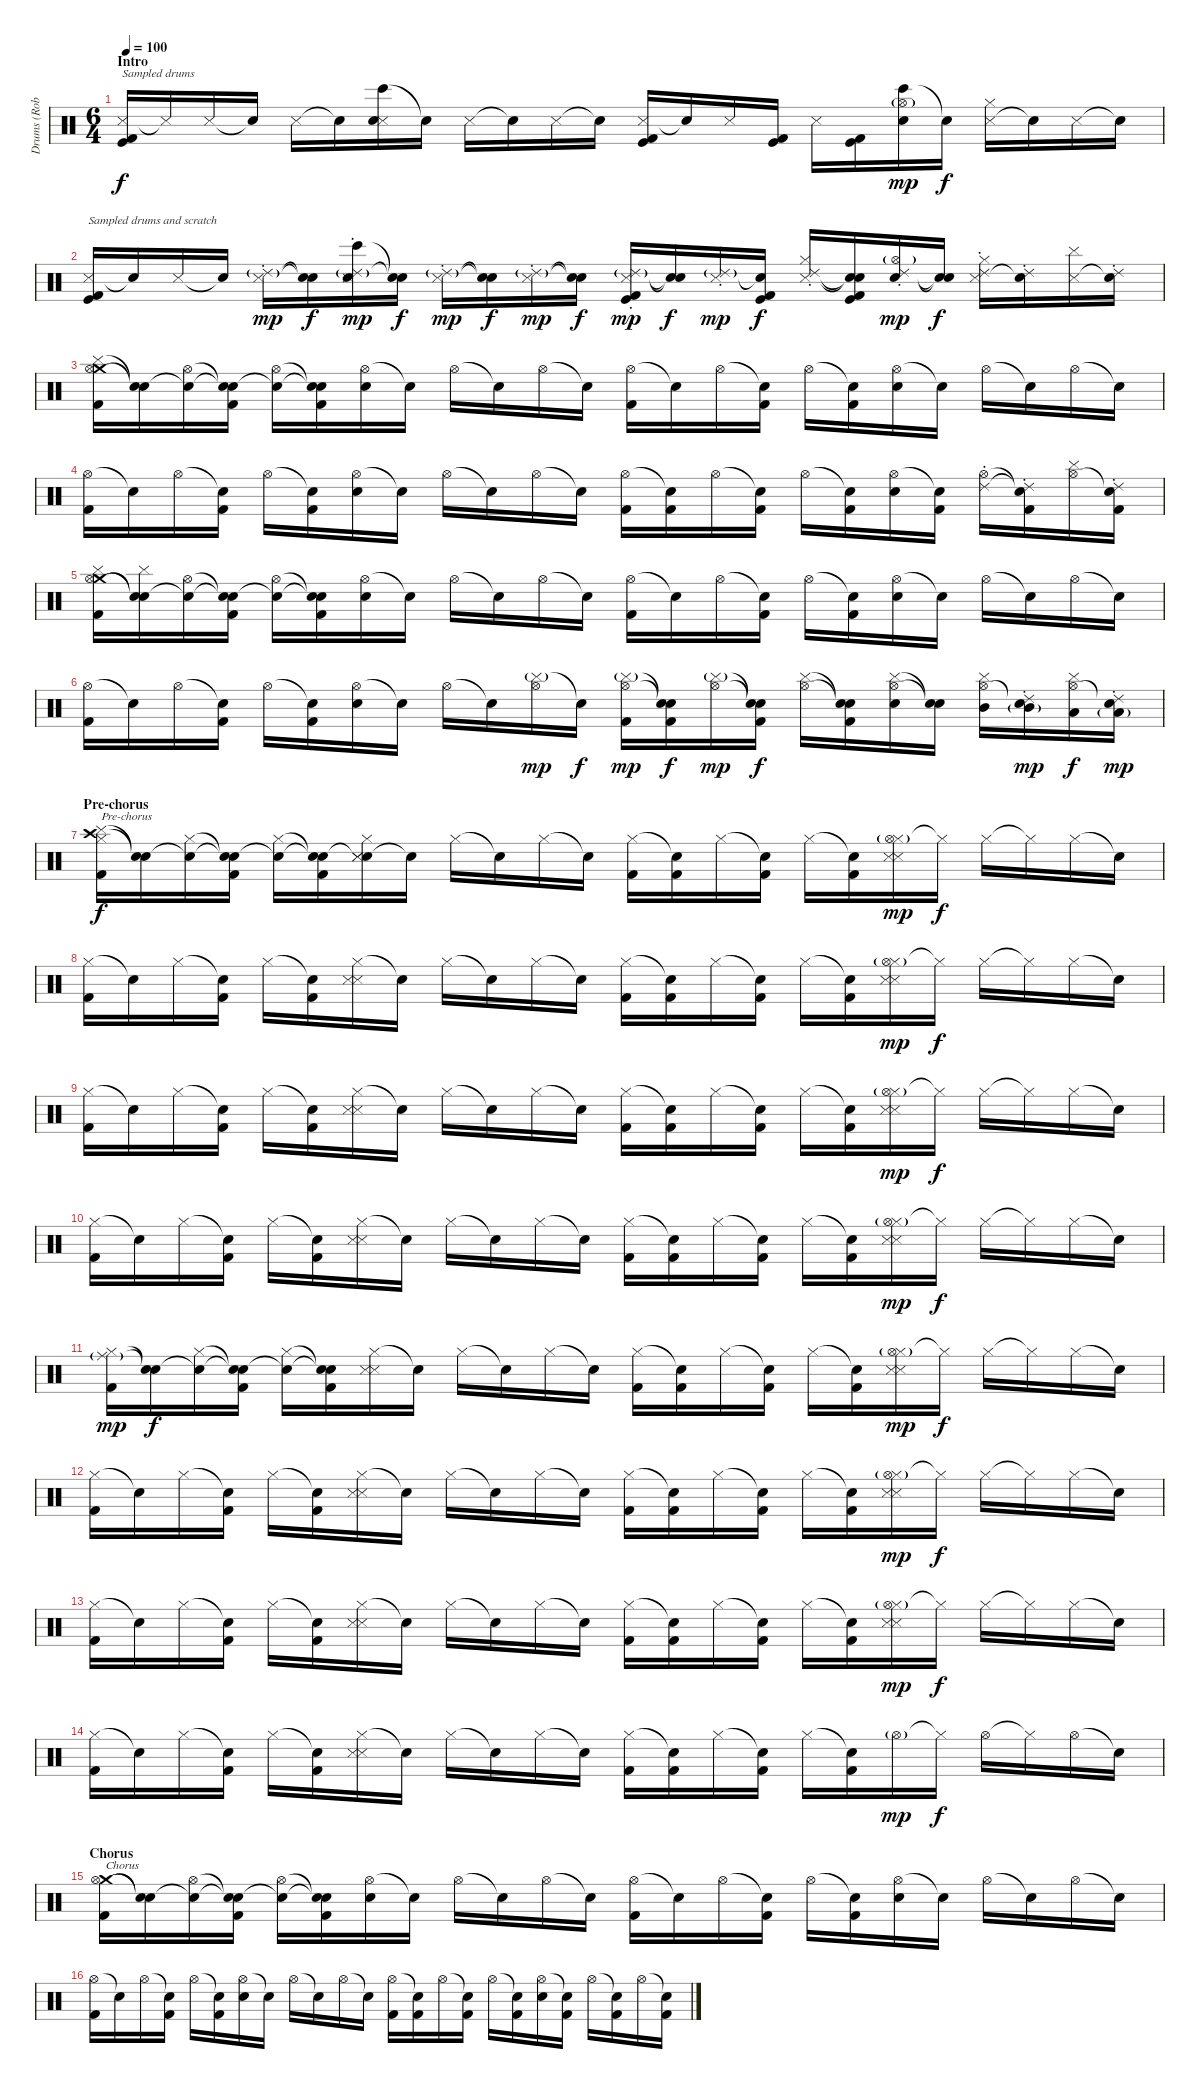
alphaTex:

\track ("Drums (Rob Bourdon)" "Drums (Rob") {instrument percussion}
\staff {score}
\articulation defaults
\ts (6 4)
\section ("" "Intro")
\tempo 100
\clef neutral
\ks c
("Snare (side stick) 3" "Kick (hit)" "Kick (hit) 2").16{txt "Sampled drums" dy f volume 4} "Snare (side stick) 3"{t}.16 "Snare (side stick) 3".16 "Snare (hit)"{t}.16 "Snare (side stick) 3".16{volume 5} "Snare (hit)"{t}.16 ("Bongo High (hit)" "Snare (side stick) 3" "Snare (hit) 2").16 "Snare (hit)"{t}.16 "Snare (side stick) 3".16{volume 6} "Snare (hit)"{t}.16 "Snare (side stick) 3".16 "Snare (hit)"{t}.16 ("Snare (side stick) 3" "Kick (hit)" "Kick (hit) 2").16{volume 8} "Snare (hit)"{t}.16 "Snare (side stick) 3".16 ("Kick (hit)" "Kick (hit) 2").16 "Snare (side stick) 3".16{volume 9} ("Kick (hit)" "Kick (hit) 2").16 ("Bongo High (hit)" "Snare (hit) 2" "Hi-Hat (open)"{g}).16{dy mp} "Snare (hit)"{t}.16{dy f} ("Snare (side stick) 3" "Hi-Hat (closed)").16{volume 10} "Snare (hit)"{t}.16 "Snare (side stick) 3".16 "Snare (hit)"{t}.16 |
("Snare (side stick) 3" "Kick (hit)" "Kick (hit) 2").16{txt "Sampled drums and scratch" volume 11} "Snare (hit)"{t}.16 "Snare (side stick) 3".16 "Snare (hit)"{t}.16 ("Ride (choke) 2"{g} "Snare (side stick) 3").16{dy mp volume 12} ("Snare (hit)"{t} "Snare (hit)"{t}).16{dy f} ("Ride (choke) 2"{g} "Bongo High (hit)" "Snare (side stick) 3" "Snare (hit) 2").16{dy mp} ("Snare (hit)"{t} "Snare (hit)"{t}).16{dy f} ("Ride (choke) 2"{g} "Snare (side stick) 3").16{dy mp volume 13} ("Snare (hit)"{t} "Snare (hit)"{t}).16{dy f} ("Ride (choke) 2"{g} "Snare (side stick) 3").16{dy mp} ("Snare (hit)"{t} "Snare (hit)"{t}).16{dy f} ("Ride (choke) 2"{g} "Snare (side stick) 3" "Kick (hit)" "Kick (hit) 2").16{dy mp volume 14} ("Snare (hit)"{t} "Snare (hit)"{t}).16{dy f} ("Ride (choke) 2"{g} "Snare (side stick) 3").16{dy mp} ("Snare (hit)"{t} "Kick (hit)" "Kick (hit) 2").16{dy f} ("Ride (choke) 2" "Snare (side stick) 3" "Hi-Hat (closed)").16 ("Snare (hit)"{t} "Snare (hit)"{t} "Kick (hit)" "Kick (hit) 2").16 ("Ride (choke) 2" "Snare (hit) 2" "Hi-Hat (open)"{g}).16{dy mp} ("Snare (hit)"{t} "Snare (hit)"{t}).16{dy f} ("Ride (choke) 2" "Snare (side stick) 3" "Hi-Hat (closed)").16 ("Ride (choke) 2" "Snare (hit)"{t}).16 ("Cymbal (hit)" "Snare (side stick) 3").16 ("Ride (choke) 2" "Snare (hit)"{t}).16 |
("Crash medium (hit)" "Cymbal (hit)" "Hi-Hat (open)" "Kick (hit) 2").16 ("Snare (hit)"{t} "Snare (hit)"{t}).16 ("Snare (hit)"{t} "Hi-Hat (open)").16 ("Snare (hit)"{t} "Snare (hit)"{t} "Kick (hit) 2").16 ("Snare (hit)"{t} "Hi-Hat (open)").16 ("Snare (hit)"{t} "Snare (hit)"{t} "Kick (hit) 2").16 ("Hi-Hat (open)" "Electric Snare (hit)").16 "Snare (hit)"{t}.16 "Hi-Hat (open)".16 "Snare (hit)"{t}.16 "Hi-Hat (open)".16 "Snare (hit)"{t}.16 ("Hi-Hat (open)" "Kick (hit) 2").16 "Snare (hit)"{t}.16 "Hi-Hat (open)".16 ("Snare (hit)"{t} "Kick (hit) 2").16 "Hi-Hat (open)".16 ("Snare (hit)"{t} "Kick (hit) 2").16 ("Hi-Hat (open)" "Electric Snare (hit)").16 "Snare (hit)"{t}.16 "Hi-Hat (open)".16 "Snare (hit)"{t}.16 "Hi-Hat (open)".16 "Snare (hit)"{t}.16 |
("Hi-Hat (open)" "Kick (hit) 2").16 "Snare (hit)"{t}.16 "Hi-Hat (open)".16 ("Snare (hit)"{t} "Kick (hit) 2").16 "Hi-Hat (open)".16 ("Snare (hit)"{t} "Kick (hit) 2").16 ("Hi-Hat (open)" "Electric Snare (hit)").16 "Snare (hit)"{t}.16 "Hi-Hat (open)".16 "Snare (hit)"{t}.16 "Hi-Hat (open)".16 "Snare (hit)"{t}.16 ("Hi-Hat (open)" "Kick (hit) 2").16 ("Snare (hit)"{t} "Kick (hit) 2").16 "Hi-Hat (open)".16 ("Snare (hit)"{t} "Kick (hit) 2").16 "Hi-Hat (open)".16 ("Snare (hit)"{t} "Kick (hit) 2").16 ("Hi-Hat (open)" "Electric Snare (hit)").16 ("Snare (hit)"{t} "Kick (hit) 2").16 ("Ride (choke) 2" "Hi-Hat (open)").16 ("Ride (choke) 2"{t} "Snare (hit)"{t} "Kick (hit) 2").16 ("Cymbal (hit)" "Hi-Hat (open)").16 ("Ride (choke) 2" "Snare (hit)"{t} "Kick (hit) 2").16 |
("Crash medium (hit)" "Cymbal (hit)" "Hi-Hat (open)" "Kick (hit) 2").16 ("Snare (hit)"{t} "Cymbal (hit)" "Snare (hit)"{t}).16 ("Snare (hit)"{t} "Hi-Hat (open)").16 ("Snare (hit)"{t} "Snare (hit)"{t} "Kick (hit) 2").16 ("Snare (hit)"{t} "Hi-Hat (open)").16 ("Snare (hit)"{t} "Snare (hit)"{t} "Kick (hit) 2").16 ("Hi-Hat (open)" "Electric Snare (hit)").16 "Snare (hit)"{t}.16 "Hi-Hat (open)".16 "Snare (hit)"{t}.16 "Hi-Hat (open)".16 "Snare (hit)"{t}.16 ("Hi-Hat (open)" "Kick (hit) 2").16 "Snare (hit)"{t}.16 "Hi-Hat (open)".16 ("Snare (hit)"{t} "Kick (hit) 2").16 "Hi-Hat (open)".16 ("Snare (hit)"{t} "Kick (hit) 2").16 ("Hi-Hat (open)" "Electric Snare (hit)").16 "Snare (hit)"{t}.16 "Hi-Hat (open)".16 "Snare (hit)"{t}.16 "Hi-Hat (open)".16 "Snare (hit)"{t}.16 |
("Hi-Hat (open)" "Kick (hit) 2").16 "Snare (hit)"{t}.16 "Hi-Hat (open)".16 ("Snare (hit)"{t} "Kick (hit) 2").16 "Hi-Hat (open)".16 ("Snare (hit)"{t} "Kick (hit) 2").16 ("Hi-Hat (open)" "Electric Snare (hit)").16 "Snare (hit)"{t}.16 "Hi-Hat (open)".16 "Snare (hit)"{t}.16 ("Cymbal (hit)"{g} "Hi-Hat (open)").16{dy mp} "Snare (hit)"{t}.16{dy f} ("Cymbal (hit)"{g} "Hi-Hat (open)" "Kick (hit) 2").16{dy mp} ("Snare (hit)"{t} "Snare (hit)"{t} "Kick (hit) 2").16{dy f} ("Cymbal (hit)"{g} "Hi-Hat (open)").16{dy mp} ("Snare (hit)"{t} "Snare (hit)"{t} "Kick (hit) 2").16{dy f} ("Cymbal (hit)" "Hi-Hat (open)").16 ("Snare (hit)"{t} "Snare (hit)"{t} "Kick (hit) 2").16 ("Cymbal (hit)" "Hi-Hat (open)" "Electric Snare (hit)").16 ("Snare (hit)"{t} "Snare (hit)"{t}).16 ("Cymbal (hit)" "Hi-Hat (open)" "Mid Tom (hit)").16 ("Ride (choke) 2" "Snare (hit)"{t} "Mid Tom (hit)"{g}).16{dy mp} ("Cymbal (hit)" "Hi-Hat (open)" "Low Tom (hit)").16{dy f} ("Ride (choke) 2" "Snare (hit)"{t} "Low Tom (hit)"{g}).16{dy mp} |
\section ("" "Pre-chorus")
("Crash high (hit)" "Cymbal (hit)" "Hi-Hat (closed)" "Kick (hit) 2").16{txt "Pre-chorus" dy f} ("Snare (hit)"{t} "Snare (hit)"{t}).16 ("Snare (hit)"{t} "Hi-Hat (closed)").16 ("Snare (hit)"{t} "Snare (hit)"{t} "Kick (hit) 2").16 ("Snare (hit)"{t} "Hi-Hat (closed)").16 ("Snare (hit)"{t} "Snare (hit)"{t} "Kick (hit) 2").16 ("Snare (hit)"{t} "Hi-Hat (closed)" "Snare (side stick) 3" "Metronome (hit)").16 "Snare (hit)"{t}.16 "Hi-Hat (closed)".16 "Snare (hit)"{t}.16 "Hi-Hat (closed)".16 "Snare (hit)"{t}.16 ("Hi-Hat (closed)" "Kick (hit) 2").16 ("Snare (hit)"{t} "Kick (hit) 2").16 "Hi-Hat (closed)".16 ("Snare (hit)"{t} "Kick (hit) 2").16 "Hi-Hat (closed)".16 ("Snare (hit)"{t} "Kick (hit) 2").16 ("Hi-Hat (closed)" "Hi-Hat (open)"{g} "Snare (side stick) 3" "Metronome (hit)").16{dy mp} "Hi-Hat (closed)"{t}.16{dy f} "Hi-Hat (closed)".16 "Hi-Hat (closed)"{t}.16 "Hi-Hat (closed)".16 "Snare (hit)"{t}.16 |
("Hi-Hat (closed)" "Kick (hit) 2").16 "Snare (hit)"{t}.16 "Hi-Hat (closed)".16 ("Snare (hit)"{t} "Kick (hit) 2").16 "Hi-Hat (closed)".16 ("Snare (hit)"{t} "Kick (hit) 2").16 ("Hi-Hat (closed)" "Snare (side stick) 3" "Metronome (hit)").16 "Snare (hit)"{t}.16 "Hi-Hat (closed)".16 "Snare (hit)"{t}.16 "Hi-Hat (closed)".16 "Snare (hit)"{t}.16 ("Hi-Hat (closed)" "Kick (hit) 2").16 ("Snare (hit)"{t} "Kick (hit) 2").16 "Hi-Hat (closed)".16 ("Snare (hit)"{t} "Kick (hit) 2").16 "Hi-Hat (closed)".16 ("Snare (hit)"{t} "Kick (hit) 2").16 ("Hi-Hat (closed)" "Hi-Hat (open)"{g} "Snare (side stick) 3" "Metronome (hit)").16{dy mp} "Hi-Hat (closed)"{t}.16{dy f} "Hi-Hat (closed)".16 "Hi-Hat (closed)"{t}.16 "Hi-Hat (closed)".16 "Snare (hit)"{t}.16 |
("Hi-Hat (closed)" "Kick (hit) 2").16 "Snare (hit)"{t}.16 "Hi-Hat (closed)".16 ("Snare (hit)"{t} "Kick (hit) 2").16 "Hi-Hat (closed)".16 ("Snare (hit)"{t} "Kick (hit) 2").16 ("Hi-Hat (closed)" "Snare (side stick) 3" "Metronome (hit)").16 "Snare (hit)"{t}.16 "Hi-Hat (closed)".16 "Snare (hit)"{t}.16 "Hi-Hat (closed)".16 "Snare (hit)"{t}.16 ("Hi-Hat (closed)" "Kick (hit) 2").16 ("Snare (hit)"{t} "Kick (hit) 2").16 "Hi-Hat (closed)".16 ("Snare (hit)"{t} "Kick (hit) 2").16 "Hi-Hat (closed)".16 ("Snare (hit)"{t} "Kick (hit) 2").16 ("Hi-Hat (closed)" "Hi-Hat (open)"{g} "Snare (side stick) 3" "Metronome (hit)").16{dy mp} "Hi-Hat (closed)"{t}.16{dy f} "Hi-Hat (closed)".16 "Hi-Hat (closed)"{t}.16 "Hi-Hat (closed)".16 "Snare (hit)"{t}.16 |
("Hi-Hat (closed)" "Kick (hit) 2").16 "Snare (hit)"{t}.16 "Hi-Hat (closed)".16 ("Snare (hit)"{t} "Kick (hit) 2").16 "Hi-Hat (closed)".16 ("Snare (hit)"{t} "Kick (hit) 2").16 ("Hi-Hat (closed)" "Snare (side stick) 3" "Metronome (hit)").16 "Snare (hit)"{t}.16 "Hi-Hat (closed)".16 "Snare (hit)"{t}.16 "Hi-Hat (closed)".16 "Snare (hit)"{t}.16 ("Hi-Hat (closed)" "Kick (hit) 2").16 ("Snare (hit)"{t} "Kick (hit) 2").16 "Hi-Hat (closed)".16 ("Snare (hit)"{t} "Kick (hit) 2").16 "Hi-Hat (closed)".16 ("Snare (hit)"{t} "Kick (hit) 2").16 ("Hi-Hat (closed)" "Hi-Hat (open)"{g} "Snare (side stick) 3" "Metronome (hit)").16{dy mp} "Hi-Hat (closed)"{t}.16{dy f} "Hi-Hat (closed)".16 "Hi-Hat (closed)"{t}.16 "Hi-Hat (closed)".16 "Snare (hit)"{t}.16 |
("Ride (middle)"{g} "Hi-Hat (closed)" "Kick (hit) 2").16{dy mp} ("Snare (hit)"{t} "Snare (hit)"{t}).16{dy f} ("Snare (hit)"{t} "Hi-Hat (closed)").16 ("Snare (hit)"{t} "Snare (hit)"{t} "Kick (hit) 2").16 ("Snare (hit)"{t} "Hi-Hat (closed)").16 ("Snare (hit)"{t} "Snare (hit)"{t} "Kick (hit) 2").16 ("Hi-Hat (closed)" "Snare (side stick) 3" "Metronome (hit)").16 "Snare (hit)"{t}.16 "Hi-Hat (closed)".16 "Snare (hit)"{t}.16 "Hi-Hat (closed)".16 "Snare (hit)"{t}.16 ("Hi-Hat (closed)" "Kick (hit) 2").16 ("Snare (hit)"{t} "Kick (hit) 2").16 "Hi-Hat (closed)".16 ("Snare (hit)"{t} "Kick (hit) 2").16 "Hi-Hat (closed)".16 ("Snare (hit)"{t} "Kick (hit) 2").16 ("Hi-Hat (closed)" "Hi-Hat (open)"{g} "Snare (side stick) 3" "Metronome (hit)").16{dy mp} "Hi-Hat (closed)"{t}.16{dy f} "Hi-Hat (closed)".16 "Hi-Hat (closed)"{t}.16 "Hi-Hat (closed)".16 "Snare (hit)"{t}.16 |
("Hi-Hat (closed)" "Kick (hit) 2").16 "Snare (hit)"{t}.16 "Hi-Hat (closed)".16 ("Snare (hit)"{t} "Kick (hit) 2").16 "Hi-Hat (closed)".16 ("Snare (hit)"{t} "Kick (hit) 2").16 ("Hi-Hat (closed)" "Snare (side stick) 3" "Metronome (hit)").16 "Snare (hit)"{t}.16 "Hi-Hat (closed)".16 "Snare (hit)"{t}.16 "Hi-Hat (closed)".16 "Snare (hit)"{t}.16 ("Hi-Hat (closed)" "Kick (hit) 2").16 ("Snare (hit)"{t} "Kick (hit) 2").16 "Hi-Hat (closed)".16 ("Snare (hit)"{t} "Kick (hit) 2").16 "Hi-Hat (closed)".16 ("Snare (hit)"{t} "Kick (hit) 2").16 ("Hi-Hat (closed)" "Hi-Hat (open)"{g} "Snare (side stick) 3" "Metronome (hit)").16{dy mp} "Hi-Hat (closed)"{t}.16{dy f} "Hi-Hat (closed)".16 "Hi-Hat (closed)"{t}.16 "Hi-Hat (closed)".16 "Snare (hit)"{t}.16 |
("Hi-Hat (closed)" "Kick (hit) 2").16 "Snare (hit)"{t}.16 "Hi-Hat (closed)".16 ("Snare (hit)"{t} "Kick (hit) 2").16 "Hi-Hat (closed)".16 ("Snare (hit)"{t} "Kick (hit) 2").16 ("Hi-Hat (closed)" "Snare (side stick) 3" "Metronome (hit)").16 "Snare (hit)"{t}.16 "Hi-Hat (closed)".16 "Snare (hit)"{t}.16 "Hi-Hat (closed)".16 "Snare (hit)"{t}.16 ("Hi-Hat (closed)" "Kick (hit) 2").16 ("Snare (hit)"{t} "Kick (hit) 2").16 "Hi-Hat (closed)".16 ("Snare (hit)"{t} "Kick (hit) 2").16 "Hi-Hat (closed)".16 ("Snare (hit)"{t} "Kick (hit) 2").16 ("Hi-Hat (closed)" "Hi-Hat (open)"{g} "Snare (side stick) 3" "Metronome (hit)").16{dy mp} "Hi-Hat (closed)"{t}.16{dy f} "Hi-Hat (closed)".16 "Hi-Hat (closed)"{t}.16 "Hi-Hat (closed)".16 "Snare (hit)"{t}.16 |
("Hi-Hat (closed)" "Kick (hit) 2").16 "Snare (hit)"{t}.16 "Hi-Hat (closed)".16 ("Snare (hit)"{t} "Kick (hit) 2").16 "Hi-Hat (closed)".16 ("Snare (hit)"{t} "Kick (hit) 2").16 ("Hi-Hat (closed)" "Snare (side stick) 3" "Metronome (hit)").16 "Snare (hit)"{t}.16 "Hi-Hat (closed)".16 "Snare (hit)"{t}.16 "Hi-Hat (closed)".16 "Snare (hit)"{t}.16 ("Hi-Hat (closed)" "Kick (hit) 2").16 ("Snare (hit)"{t} "Kick (hit) 2").16 "Hi-Hat (closed)".16 ("Snare (hit)"{t} "Kick (hit) 2").16 "Hi-Hat (closed)".16 ("Snare (hit)"{t} "Kick (hit) 2").16 "Hi-Hat (open)"{g}.16{dy mp} "Hi-Hat (closed)"{t}.16{dy f} "Hi-Hat (open)".16 "Hi-Hat (closed)"{t}.16 "Hi-Hat (open)".16 "Snare (hit)"{t}.16 |
\section ("" "Chorus")
("Crash medium (hit)" "Hi-Hat (open)" "Kick (hit) 2").16{txt "Chorus"} ("Snare (hit)"{t} "Snare (hit)"{t}).16 ("Snare (hit)"{t} "Hi-Hat (open)").16 ("Snare (hit)"{t} "Snare (hit)"{t} "Kick (hit) 2").16 ("Snare (hit)"{t} "Hi-Hat (open)").16 ("Snare (hit)"{t} "Snare (hit)"{t} "Kick (hit) 2").16 ("Hi-Hat (open)" "Electric Snare (hit)").16 "Snare (hit)"{t}.16 "Hi-Hat (open)".16 "Snare (hit)"{t}.16 "Hi-Hat (open)".16 "Snare (hit)"{t}.16 ("Hi-Hat (open)" "Kick (hit) 2").16 "Snare (hit)"{t}.16 "Hi-Hat (open)".16 ("Snare (hit)"{t} "Kick (hit) 2").16 "Hi-Hat (open)".16 ("Snare (hit)"{t} "Kick (hit) 2").16 ("Hi-Hat (open)" "Electric Snare (hit)").16 "Snare (hit)"{t}.16 "Hi-Hat (open)".16 "Snare (hit)"{t}.16 "Hi-Hat (open)".16 "Snare (hit)"{t}.16 |
("Hi-Hat (open)" "Kick (hit) 2").16 "Snare (hit)"{t}.16 "Hi-Hat (open)".16 ("Snare (hit)"{t} "Kick (hit) 2").16 "Hi-Hat (open)".16 ("Snare (hit)"{t} "Kick (hit) 2").16 ("Hi-Hat (open)" "Electric Snare (hit)").16 "Snare (hit)"{t}.16 "Hi-Hat (open)".16 "Snare (hit)"{t}.16 "Hi-Hat (open)".16 "Snare (hit)"{t}.16 ("Hi-Hat (open)" "Kick (hit) 2").16 ("Snare (hit)"{t} "Kick (hit) 2").16 "Hi-Hat (open)".16 ("Snare (hit)"{t} "Kick (hit) 2").16 "Hi-Hat (open)".16 ("Snare (hit)"{t} "Kick (hit) 2").16 ("Hi-Hat (open)" "Electric Snare (hit)").16 ("Snare (hit)"{t} "Kick (hit) 2").16 "Hi-Hat (open)".16 ("Snare (hit)"{t} "Kick (hit) 2").16 "Hi-Hat (open)".16 ("Snare (hit)"{t} "Kick (hit) 2").16
